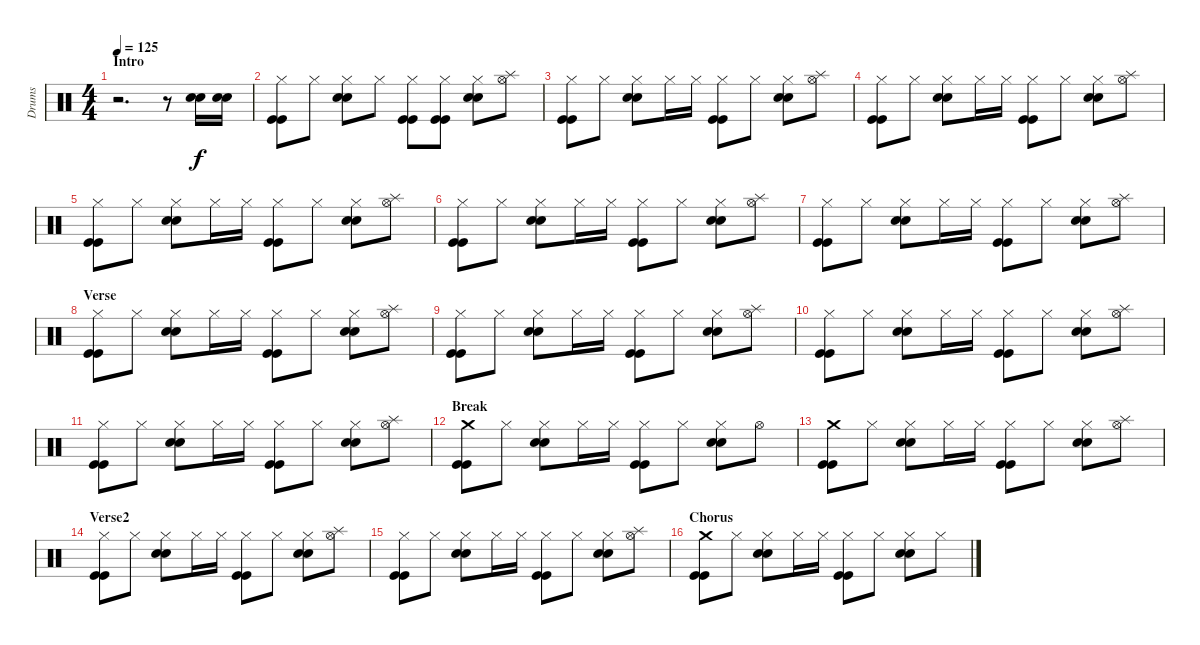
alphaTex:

\track ("Drums" "Drums") {instrument percussion}
\staff {score}
\articulation defaults
\ts (4 4)
\section ("" "Intro")
\tempo 125
\clef neutral
\ks c
r.2{d dy f} r.8 ("Electric Snare (hit)" "Electric Snare (hit)").16 ("Electric Snare (hit)" "Electric Snare (hit)").16 |
("Hi-Hat (closed)" "Kick (hit)" "Kick (hit)").8 "Hi-Hat (closed)".8 ("Hi-Hat (closed)" "Electric Snare (hit)" "Electric Snare (hit)").8 "Hi-Hat (closed)".8 ("Hi-Hat (closed)" "Kick (hit)" "Kick (hit)").8 ("Hi-Hat (closed)" "Kick (hit)" "Kick (hit)").8 ("Hi-Hat (closed)" "Electric Snare (hit)" "Electric Snare (hit)").8 ("Hi-Hat (open)" "Splash (hit)").8 |
("Hi-Hat (closed)" "Kick (hit)" "Kick (hit)").8 "Hi-Hat (closed)".8 ("Hi-Hat (closed)" "Electric Snare (hit)" "Electric Snare (hit)").8 "Hi-Hat (closed)".16 "Hi-Hat (closed)".16 ("Hi-Hat (closed)" "Kick (hit)" "Kick (hit)").8 "Hi-Hat (closed)".8 ("Hi-Hat (closed)" "Electric Snare (hit)" "Electric Snare (hit)").8 ("Hi-Hat (open)" "Splash (hit)").8 |
("Hi-Hat (closed)" "Kick (hit)" "Kick (hit)").8 "Hi-Hat (closed)".8 ("Hi-Hat (closed)" "Electric Snare (hit)" "Electric Snare (hit)").8 "Hi-Hat (closed)".16 "Hi-Hat (closed)".16 ("Hi-Hat (closed)" "Kick (hit)" "Kick (hit)").8 "Hi-Hat (closed)".8 ("Hi-Hat (closed)" "Electric Snare (hit)" "Electric Snare (hit)").8 ("Hi-Hat (open)" "Splash (hit)").8 |
("Hi-Hat (closed)" "Kick (hit)" "Kick (hit)").8 "Hi-Hat (closed)".8 ("Hi-Hat (closed)" "Electric Snare (hit)" "Electric Snare (hit)").8 "Hi-Hat (closed)".16 "Hi-Hat (closed)".16 ("Hi-Hat (closed)" "Kick (hit)" "Kick (hit)").8 "Hi-Hat (closed)".8 ("Hi-Hat (closed)" "Electric Snare (hit)" "Electric Snare (hit)").8 ("Hi-Hat (open)" "Splash (hit)").8 |
("Hi-Hat (closed)" "Kick (hit)" "Kick (hit)").8 "Hi-Hat (closed)".8 ("Hi-Hat (closed)" "Electric Snare (hit)" "Electric Snare (hit)").8 "Hi-Hat (closed)".16 "Hi-Hat (closed)".16 ("Hi-Hat (closed)" "Kick (hit)" "Kick (hit)").8 "Hi-Hat (closed)".8 ("Hi-Hat (closed)" "Electric Snare (hit)" "Electric Snare (hit)").8 ("Hi-Hat (open)" "Splash (hit)").8 |
("Hi-Hat (closed)" "Kick (hit)" "Kick (hit)").8 "Hi-Hat (closed)".8 ("Hi-Hat (closed)" "Electric Snare (hit)" "Electric Snare (hit)").8 "Hi-Hat (closed)".16 "Hi-Hat (closed)".16 ("Hi-Hat (closed)" "Kick (hit)" "Kick (hit)").8 "Hi-Hat (closed)".8 ("Hi-Hat (closed)" "Electric Snare (hit)" "Electric Snare (hit)").8 ("Hi-Hat (open)" "Splash (hit)").8 |
\section ("" "Verse")
("Hi-Hat (closed)" "Kick (hit)" "Kick (hit)").8 "Hi-Hat (closed)".8 ("Hi-Hat (closed)" "Electric Snare (hit)" "Electric Snare (hit)").8 "Hi-Hat (closed)".16 "Hi-Hat (closed)".16 ("Hi-Hat (closed)" "Kick (hit)" "Kick (hit)").8 "Hi-Hat (closed)".8 ("Hi-Hat (closed)" "Electric Snare (hit)" "Electric Snare (hit)").8 ("Hi-Hat (open)" "Splash (hit)").8 |
("Hi-Hat (closed)" "Kick (hit)" "Kick (hit)").8 "Hi-Hat (closed)".8 ("Hi-Hat (closed)" "Electric Snare (hit)" "Electric Snare (hit)").8 "Hi-Hat (closed)".16 "Hi-Hat (closed)".16 ("Hi-Hat (closed)" "Kick (hit)" "Kick (hit)").8 "Hi-Hat (closed)".8 ("Hi-Hat (closed)" "Electric Snare (hit)" "Electric Snare (hit)").8 ("Hi-Hat (open)" "Splash (hit)").8 |
("Hi-Hat (closed)" "Kick (hit)" "Kick (hit)").8 "Hi-Hat (closed)".8 ("Hi-Hat (closed)" "Electric Snare (hit)" "Electric Snare (hit)").8 "Hi-Hat (closed)".16 "Hi-Hat (closed)".16 ("Hi-Hat (closed)" "Kick (hit)" "Kick (hit)").8 "Hi-Hat (closed)".8 ("Hi-Hat (closed)" "Electric Snare (hit)" "Electric Snare (hit)").8 ("Hi-Hat (open)" "Splash (hit)").8 |
("Hi-Hat (closed)" "Kick (hit)" "Kick (hit)").8 "Hi-Hat (closed)".8 ("Hi-Hat (closed)" "Electric Snare (hit)" "Electric Snare (hit)").8 "Hi-Hat (closed)".16 "Hi-Hat (closed)".16 ("Hi-Hat (closed)" "Kick (hit)" "Kick (hit)").8 "Hi-Hat (closed)".8 ("Hi-Hat (closed)" "Electric Snare (hit)" "Electric Snare (hit)").8 ("Hi-Hat (open)" "Splash (hit)").8 |
\section ("" "Break")
("Crash medium (hit)" "Kick (hit)" "Kick (hit)").8 "Hi-Hat (closed)".8 ("Hi-Hat (closed)" "Electric Snare (hit)" "Electric Snare (hit)").8 "Hi-Hat (closed)".16 "Hi-Hat (closed)".16 ("Hi-Hat (closed)" "Kick (hit)" "Kick (hit)").8 "Hi-Hat (closed)".8 ("Hi-Hat (closed)" "Electric Snare (hit)" "Electric Snare (hit)").8 "Hi-Hat (open)".8 |
("Crash medium (hit)" "Kick (hit)" "Kick (hit)").8 "Hi-Hat (closed)".8 ("Hi-Hat (closed)" "Electric Snare (hit)" "Electric Snare (hit)").8 "Hi-Hat (closed)".16 "Hi-Hat (closed)".16 ("Hi-Hat (closed)" "Kick (hit)" "Kick (hit)").8 "Hi-Hat (closed)".8 ("Hi-Hat (closed)" "Electric Snare (hit)" "Electric Snare (hit)").8 ("Hi-Hat (open)" "Splash (hit)").8 |
\section ("" "Verse2")
("Hi-Hat (closed)" "Kick (hit)" "Kick (hit)").8 "Hi-Hat (closed)".8 ("Hi-Hat (closed)" "Electric Snare (hit)" "Electric Snare (hit)").8 "Hi-Hat (closed)".16 "Hi-Hat (closed)".16 ("Hi-Hat (closed)" "Kick (hit)" "Kick (hit)").8 "Hi-Hat (closed)".8 ("Hi-Hat (closed)" "Electric Snare (hit)" "Electric Snare (hit)").8 ("Hi-Hat (open)" "Splash (hit)").8 |
("Hi-Hat (closed)" "Kick (hit)" "Kick (hit)").8 "Hi-Hat (closed)".8 ("Hi-Hat (closed)" "Electric Snare (hit)" "Electric Snare (hit)").8 "Hi-Hat (closed)".16 "Hi-Hat (closed)".16 ("Hi-Hat (closed)" "Kick (hit)" "Kick (hit)").8 "Hi-Hat (closed)".8 ("Hi-Hat (closed)" "Electric Snare (hit)" "Electric Snare (hit)").8 ("Hi-Hat (open)" "Splash (hit)").8 |
\section ("" "Chorus")
("Crash medium (hit)" "Kick (hit)" "Kick (hit)").8 "Hi-Hat (closed)".8 ("Hi-Hat (closed)" "Electric Snare (hit)" "Electric Snare (hit)").8 "Hi-Hat (closed)".16 "Hi-Hat (closed)".16 ("Hi-Hat (closed)" "Kick (hit)" "Kick (hit)").8 "Hi-Hat (closed)".8 ("Hi-Hat (closed)" "Electric Snare (hit)" "Electric Snare (hit)").8 "Hi-Hat (closed)".8
